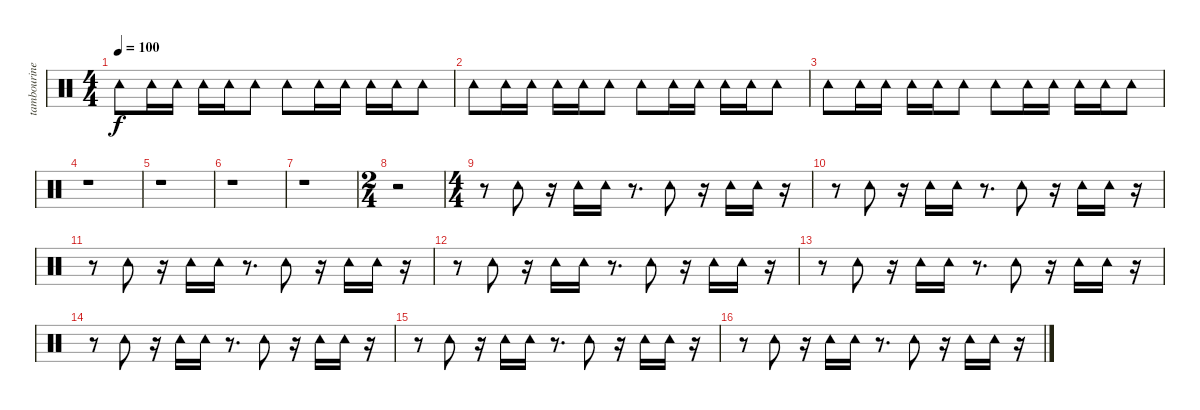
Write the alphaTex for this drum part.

\track ("tambourine (claps)" "tambourine") {instrument percussion}
\staff {score}
\articulation defaults
\ts (4 4)
\tempo 100
\clef neutral
\ks c "Tambourine (hit)".8{dy f} "Tambourine (hit)".16 "Tambourine (hit)".16 "Tambourine (hit)".16 "Tambourine (hit)".16 "Tambourine (hit)".8 "Tambourine (hit)".8 "Tambourine (hit)".16 "Tambourine (hit)".16 "Tambourine (hit)".16 "Tambourine (hit)".16 "Tambourine (hit)".8
|
"Tambourine (hit)".8 "Tambourine (hit)".16 "Tambourine (hit)".16 "Tambourine (hit)".16 "Tambourine (hit)".16 "Tambourine (hit)".8 "Tambourine (hit)".8 "Tambourine (hit)".16 "Tambourine (hit)".16 "Tambourine (hit)".16 "Tambourine (hit)".16 "Tambourine (hit)".8 |
"Tambourine (hit)".8 "Tambourine (hit)".16 "Tambourine (hit)".16 "Tambourine (hit)".16 "Tambourine (hit)".16 "Tambourine (hit)".8 "Tambourine (hit)".8 "Tambourine (hit)".16 "Tambourine (hit)".16 "Tambourine (hit)".16 "Tambourine (hit)".16 "Tambourine (hit)".8 |
r.1 |
r.1 |
r.1 |
r.1 |
\ts (2 4)
r.2 |
\ts (4 4)
r.8 "Tambourine (hit)".8 r.16 "Tambourine (hit)".16 "Tambourine (hit)".16 r.8{d} "Tambourine (hit)".8 r.16 "Tambourine (hit)".16 "Tambourine (hit)".16 r.16 |
r.8 "Tambourine (hit)".8 r.16 "Tambourine (hit)".16 "Tambourine (hit)".16 r.8{d} "Tambourine (hit)".8 r.16 "Tambourine (hit)".16 "Tambourine (hit)".16 r.16 |
r.8 "Tambourine (hit)".8 r.16 "Tambourine (hit)".16 "Tambourine (hit)".16 r.8{d} "Tambourine (hit)".8 r.16 "Tambourine (hit)".16 "Tambourine (hit)".16 r.16 |
r.8 "Tambourine (hit)".8 r.16 "Tambourine (hit)".16 "Tambourine (hit)".16 r.8{d} "Tambourine (hit)".8 r.16 "Tambourine (hit)".16 "Tambourine (hit)".16 r.16 |
r.8 "Tambourine (hit)".8 r.16 "Tambourine (hit)".16 "Tambourine (hit)".16 r.8{d} "Tambourine (hit)".8 r.16 "Tambourine (hit)".16 "Tambourine (hit)".16 r.16 |
r.8 "Tambourine (hit)".8 r.16 "Tambourine (hit)".16 "Tambourine (hit)".16 r.8{d} "Tambourine (hit)".8 r.16 "Tambourine (hit)".16 "Tambourine (hit)".16 r.16 |
r.8 "Tambourine (hit)".8 r.16 "Tambourine (hit)".16 "Tambourine (hit)".16 r.8{d} "Tambourine (hit)".8 r.16 "Tambourine (hit)".16 "Tambourine (hit)".16 r.16 |
r.8 "Tambourine (hit)".8 r.16 "Tambourine (hit)".16 "Tambourine (hit)".16 r.8{d} "Tambourine (hit)".8 r.16 "Tambourine (hit)".16 "Tambourine (hit)".16 r.16
